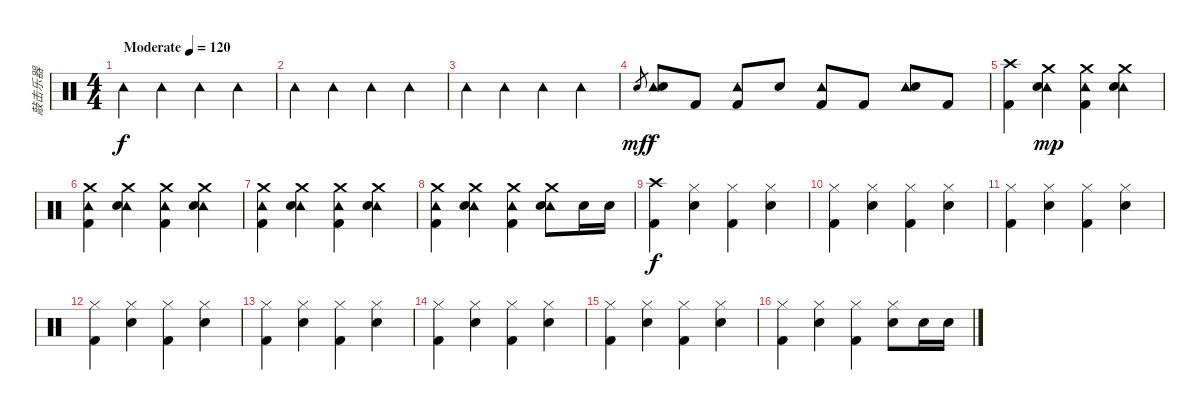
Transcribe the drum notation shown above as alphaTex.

\track ("敲击乐器" "敲击乐器") {instrument percussion}
\staff {score}
\articulation defaults
\ts (4 4)
\tempo (120 "Moderate")
\clef neutral
\ks c "Tambourine (hit)".4{dy f} "Tambourine (hit)".4 "Tambourine (hit)".4 "Tambourine (hit)".4
|
"Tambourine (hit)".4 "Tambourine (hit)".4 "Tambourine (hit)".4 "Tambourine (hit)".4 |
"Tambourine (hit)".4 "Tambourine (hit)".4 "Tambourine (hit)".4 "Tambourine (hit)".4 |
"Electric Snare (hit)".8{gr dy mf} ("Tambourine (hit)" "Electric Snare (hit)").8{dy f} "Kick (hit) 2".8 ("Tambourine (hit)" "Kick (hit) 2").8 "Electric Snare (hit)".8 ("Tambourine (hit)" "Kick (hit) 2").8 "Kick (hit) 2".8 ("Tambourine (hit)" "Electric Snare (hit)").8 "Kick (hit) 2".8 |
("Crash high (hit)" "Kick (hit) 2").4 ("Tambourine (hit)" "Crash medium (hit)" "Electric Snare (hit)").4{dy mp} ("Tambourine (hit)" "Crash medium (hit)" "Kick (hit) 2").4 ("Tambourine (hit)" "Crash medium (hit)" "Electric Snare (hit)").4 |
("Tambourine (hit)" "Crash medium (hit)" "Kick (hit) 2").4 ("Tambourine (hit)" "Crash medium (hit)" "Electric Snare (hit)").4 ("Tambourine (hit)" "Crash medium (hit)" "Kick (hit) 2").4 ("Tambourine (hit)" "Crash medium (hit)" "Electric Snare (hit)").4 |
("Tambourine (hit)" "Crash medium (hit)" "Kick (hit) 2").4 ("Tambourine (hit)" "Crash medium (hit)" "Electric Snare (hit)").4 ("Tambourine (hit)" "Crash medium (hit)" "Kick (hit) 2").4 ("Tambourine (hit)" "Crash medium (hit)" "Electric Snare (hit)").4 |
("Tambourine (hit)" "Crash medium (hit)" "Kick (hit) 2").4 ("Tambourine (hit)" "Crash medium (hit)" "Electric Snare (hit)").4 ("Tambourine (hit)" "Crash medium (hit)" "Kick (hit) 2").4 ("Tambourine (hit)" "Crash medium (hit)" "Electric Snare (hit)").8 "Electric Snare (hit)".16 "Electric Snare (hit)".16 |
("Crash high (hit)" "Kick (hit) 2").4{dy f} ("Hi-Hat (closed)" "Electric Snare (hit)").4 ("Hi-Hat (closed)" "Kick (hit) 2").4 ("Hi-Hat (closed)" "Electric Snare (hit)").4 |
("Hi-Hat (closed)" "Kick (hit) 2").4 ("Hi-Hat (closed)" "Electric Snare (hit)").4 ("Hi-Hat (closed)" "Kick (hit) 2").4 ("Hi-Hat (closed)" "Electric Snare (hit)").4 |
("Hi-Hat (closed)" "Kick (hit) 2").4 ("Hi-Hat (closed)" "Electric Snare (hit)").4 ("Hi-Hat (closed)" "Kick (hit) 2").4 ("Hi-Hat (closed)" "Electric Snare (hit)").4 |
("Hi-Hat (closed)" "Kick (hit) 2").4 ("Hi-Hat (closed)" "Electric Snare (hit)").4 ("Hi-Hat (closed)" "Kick (hit) 2").4 ("Hi-Hat (closed)" "Electric Snare (hit)").4 |
("Hi-Hat (closed)" "Kick (hit) 2").4 ("Hi-Hat (closed)" "Electric Snare (hit)").4 ("Hi-Hat (closed)" "Kick (hit) 2").4 ("Hi-Hat (closed)" "Electric Snare (hit)").4 |
("Hi-Hat (closed)" "Kick (hit) 2").4 ("Hi-Hat (closed)" "Electric Snare (hit)").4 ("Hi-Hat (closed)" "Kick (hit) 2").4 ("Hi-Hat (closed)" "Electric Snare (hit)").4 |
("Hi-Hat (closed)" "Kick (hit) 2").4 ("Hi-Hat (closed)" "Electric Snare (hit)").4 ("Hi-Hat (closed)" "Kick (hit) 2").4 ("Hi-Hat (closed)" "Electric Snare (hit)").4 |
("Hi-Hat (closed)" "Kick (hit) 2").4 ("Hi-Hat (closed)" "Electric Snare (hit)").4 ("Hi-Hat (closed)" "Kick (hit) 2").4 ("Hi-Hat (closed)" "Electric Snare (hit)").8 "Electric Snare (hit)".16 "Electric Snare (hit)".16
